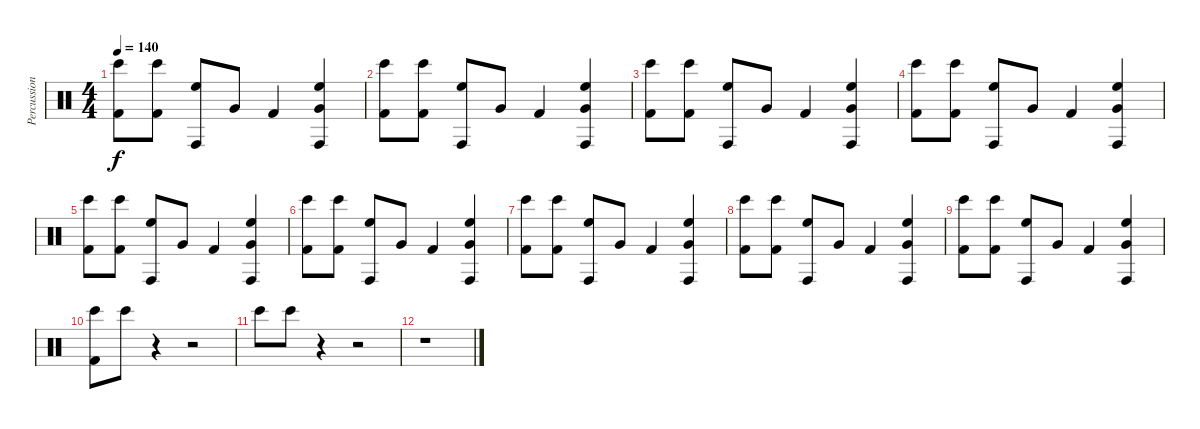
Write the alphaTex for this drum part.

\track ("Percussion" "Percussion") {instrument percussion}
\staff {score}
\articulation defaults
\ts (4 4)
\tempo 140
\clef neutral
\ks c
("Bongo High (hit)" "Kick (hit) 2").8{dy f} ("Bongo High (hit)" "Kick (hit) 2").8 ("Conga high (hit)" "High Floor Tom (hit)").8 "Very Low Tom (hit)".8 "Kick (hit) 2".4 ("Conga high (hit)" "High Floor Tom (hit)" "Very Low Tom (hit)").4 |
("Bongo High (hit)" "Kick (hit) 2").8 ("Bongo High (hit)" "Kick (hit) 2").8 ("Conga high (hit)" "High Floor Tom (hit)").8 "Very Low Tom (hit)".8 "Kick (hit) 2".4 ("Conga high (hit)" "High Floor Tom (hit)" "Very Low Tom (hit)").4 |
("Bongo High (hit)" "Kick (hit) 2").8 ("Bongo High (hit)" "Kick (hit) 2").8 ("Conga high (hit)" "High Floor Tom (hit)").8 "Very Low Tom (hit)".8 "Kick (hit) 2".4 ("Conga high (hit)" "High Floor Tom (hit)" "Very Low Tom (hit)").4 |
("Bongo High (hit)" "Kick (hit) 2").8 ("Bongo High (hit)" "Kick (hit) 2").8 ("Conga high (hit)" "High Floor Tom (hit)").8 "Very Low Tom (hit)".8 "Kick (hit) 2".4 ("Conga high (hit)" "High Floor Tom (hit)" "Very Low Tom (hit)").4 |
("Bongo High (hit)" "Kick (hit) 2").8 ("Bongo High (hit)" "Kick (hit) 2").8 ("Conga high (hit)" "High Floor Tom (hit)").8 "Very Low Tom (hit)".8 "Kick (hit) 2".4 ("Conga high (hit)" "High Floor Tom (hit)" "Very Low Tom (hit)").4 |
("Bongo High (hit)" "Kick (hit) 2").8 ("Bongo High (hit)" "Kick (hit) 2").8 ("Conga high (hit)" "High Floor Tom (hit)").8 "Very Low Tom (hit)".8 "Kick (hit) 2".4 ("Conga high (hit)" "High Floor Tom (hit)" "Very Low Tom (hit)").4 |
("Bongo High (hit)" "Kick (hit) 2").8 ("Bongo High (hit)" "Kick (hit) 2").8 ("Conga high (hit)" "High Floor Tom (hit)").8 "Very Low Tom (hit)".8 "Kick (hit) 2".4 ("Conga high (hit)" "High Floor Tom (hit)" "Very Low Tom (hit)").4 |
("Bongo High (hit)" "Kick (hit) 2").8 ("Bongo High (hit)" "Kick (hit) 2").8 ("Conga high (hit)" "High Floor Tom (hit)").8 "Very Low Tom (hit)".8 "Kick (hit) 2".4 ("Conga high (hit)" "High Floor Tom (hit)" "Very Low Tom (hit)").4 |
("Bongo High (hit)" "Kick (hit) 2").8 ("Bongo High (hit)" "Kick (hit) 2").8 ("Conga high (hit)" "High Floor Tom (hit)").8 "Very Low Tom (hit)".8 "Kick (hit) 2".4 ("Conga high (hit)" "High Floor Tom (hit)" "Very Low Tom (hit)").4 |
("Bongo High (hit)" "Kick (hit) 2").8 "Bongo High (hit)".8 r.4 r.2 |
"Bongo High (hit)".8 "Bongo High (hit)".8 r.4 r.2 |
r.1
